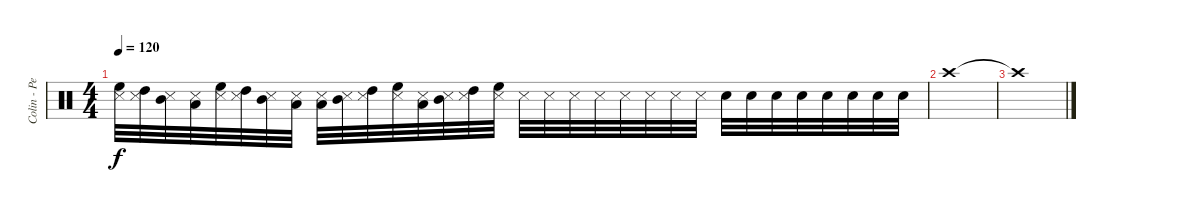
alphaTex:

\track ("Colin - Percussion" "Colin - Pe") {instrument percussion}
\staff {score}
\articulation defaults
\ts (4 4)
\tempo 120
\clef neutral
\ks c
("High Floor Tom (hit)" "Metronome (hit)").32{dy f} ("High Tom (hit)" "Metronome (hit)").32 ("Mid Tom (hit)" "Metronome (hit)").32 ("Low Tom (hit)" "Metronome (hit)").32 ("High Floor Tom (hit)" "Metronome (hit)").32 ("High Tom (hit)" "Metronome (hit)").32 ("Mid Tom (hit)" "Metronome (hit)").32 ("Low Tom (hit)" "Metronome (hit)").32 ("Low Tom (hit)" "Metronome (hit)").32 ("Mid Tom (hit)" "Metronome (hit)").32 ("High Tom (hit)" "Metronome (hit)").32 ("High Floor Tom (hit)" "Metronome (hit)").32 ("Low Tom (hit)" "Metronome (hit)").32 ("Mid Tom (hit)" "Metronome (hit)").32 ("High Tom (hit)" "Metronome (hit)").32 ("High Floor Tom (hit)" "Metronome (hit)").32 "Metronome (hit)".32 "Metronome (hit)".32 "Metronome (hit)".32 "Metronome (hit)".32 "Metronome (hit)".32 "Metronome (hit)".32 "Metronome (hit)".32 "Metronome (hit)".32 "Electric Snare (hit)".32 "Electric Snare (hit)".32 "Electric Snare (hit)".32 "Electric Snare (hit)".32 "Electric Snare (hit)".32 "Electric Snare (hit)".32 "Electric Snare (hit)".32 "Electric Snare (hit)".32 |
"Crash high (hit)".1 |
"Crash high (hit)"{t}.1
